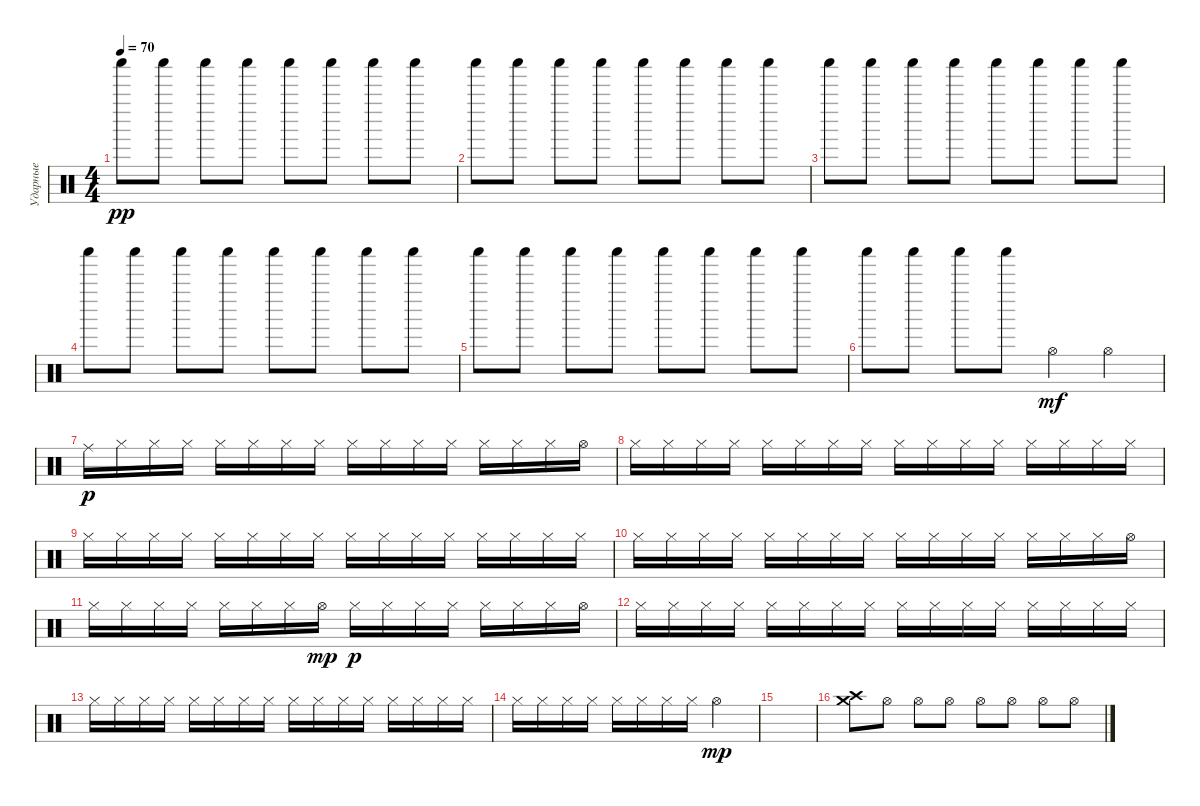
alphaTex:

\track ("Ударные" "Ударные") {instrument percussion}
\staff {score}
\articulation defaults
\ts (4 4)
\tempo 70
\clef neutral
\ks c "Shaker (hit)".8{dy pp} "Shaker (hit)".8 "Shaker (hit)".8 "Shaker (hit)".8 "Shaker (hit)".8 "Shaker (hit)".8 "Shaker (hit)".8 "Shaker (hit)".8
|
"Shaker (hit)".8 "Shaker (hit)".8 "Shaker (hit)".8 "Shaker (hit)".8 "Shaker (hit)".8 "Shaker (hit)".8 "Shaker (hit)".8 "Shaker (hit)".8 |
"Shaker (hit)".8 "Shaker (hit)".8 "Shaker (hit)".8 "Shaker (hit)".8 "Shaker (hit)".8 "Shaker (hit)".8 "Shaker (hit)".8 "Shaker (hit)".8 |
"Shaker (hit)".8 "Shaker (hit)".8 "Shaker (hit)".8 "Shaker (hit)".8 "Shaker (hit)".8 "Shaker (hit)".8 "Shaker (hit)".8 "Shaker (hit)".8 |
"Shaker (hit)".8 "Shaker (hit)".8 "Shaker (hit)".8 "Shaker (hit)".8 "Shaker (hit)".8 "Shaker (hit)".8 "Shaker (hit)".8 "Shaker (hit)".8 |
"Shaker (hit)".8 "Shaker (hit)".8 "Shaker (hit)".8 "Shaker (hit)".8 "Hi-Hat (open)".4{dy mf} "Hi-Hat (open)".4 |
"Ride (middle)".16{dy p} "Hi-Hat (closed)".16 "Hi-Hat (closed)".16 "Hi-Hat (closed)".16 "Hi-Hat (closed)".16 "Hi-Hat (closed)".16 "Hi-Hat (closed)".16 "Hi-Hat (closed)".16 "Hi-Hat (closed)".16 "Hi-Hat (closed)".16 "Hi-Hat (closed)".16 "Hi-Hat (closed)".16 "Hi-Hat (closed)".16 "Hi-Hat (closed)".16 "Hi-Hat (closed)".16 "Hi-Hat (open)".16 |
"Hi-Hat (closed)".16 "Hi-Hat (closed)".16 "Hi-Hat (closed)".16 "Hi-Hat (closed)".16 "Hi-Hat (closed)".16 "Hi-Hat (closed)".16 "Hi-Hat (closed)".16 "Hi-Hat (closed)".16 "Hi-Hat (closed)".16 "Hi-Hat (closed)".16 "Hi-Hat (closed)".16 "Hi-Hat (closed)".16 "Hi-Hat (closed)".16 "Hi-Hat (closed)".16 "Hi-Hat (closed)".16 "Hi-Hat (closed)".16 |
"Hi-Hat (closed)".16 "Hi-Hat (closed)".16 "Hi-Hat (closed)".16 "Hi-Hat (closed)".16 "Hi-Hat (closed)".16 "Hi-Hat (closed)".16 "Hi-Hat (closed)".16 "Hi-Hat (closed)".16 "Hi-Hat (closed)".16 "Hi-Hat (closed)".16 "Hi-Hat (closed)".16 "Hi-Hat (closed)".16 "Hi-Hat (closed)".16 "Hi-Hat (closed)".16 "Hi-Hat (closed)".16 "Hi-Hat (closed)".16 |
"Hi-Hat (closed)".16 "Hi-Hat (closed)".16 "Hi-Hat (closed)".16 "Hi-Hat (closed)".16 "Hi-Hat (closed)".16 "Hi-Hat (closed)".16 "Hi-Hat (closed)".16 "Hi-Hat (closed)".16 "Hi-Hat (closed)".16 "Hi-Hat (closed)".16 "Hi-Hat (closed)".16 "Hi-Hat (closed)".16 "Hi-Hat (closed)".16 "Hi-Hat (closed)".16 "Hi-Hat (closed)".16 "Hi-Hat (open)".16 |
"Hi-Hat (closed)".16 "Hi-Hat (closed)".16 "Hi-Hat (closed)".16 "Hi-Hat (closed)".16 "Hi-Hat (closed)".16 "Hi-Hat (closed)".16 "Hi-Hat (closed)".16 "Hi-Hat (open)".16{dy mp} "Hi-Hat (closed)".16{dy p} "Hi-Hat (closed)".16 "Hi-Hat (closed)".16 "Hi-Hat (closed)".16 "Hi-Hat (closed)".16 "Hi-Hat (closed)".16 "Hi-Hat (closed)".16 "Hi-Hat (open)".16 |
"Hi-Hat (closed)".16 "Hi-Hat (closed)".16 "Hi-Hat (closed)".16 "Hi-Hat (closed)".16 "Hi-Hat (closed)".16 "Hi-Hat (closed)".16 "Hi-Hat (closed)".16 "Hi-Hat (closed)".16 "Hi-Hat (closed)".16 "Hi-Hat (closed)".16 "Hi-Hat (closed)".16 "Hi-Hat (closed)".16 "Hi-Hat (closed)".16 "Hi-Hat (closed)".16 "Hi-Hat (closed)".16 "Hi-Hat (closed)".16 |
"Hi-Hat (closed)".16 "Hi-Hat (closed)".16 "Hi-Hat (closed)".16 "Hi-Hat (closed)".16 "Hi-Hat (closed)".16 "Hi-Hat (closed)".16 "Hi-Hat (closed)".16 "Hi-Hat (closed)".16 "Hi-Hat (closed)".16 "Hi-Hat (closed)".16 "Hi-Hat (closed)".16 "Hi-Hat (closed)".16 "Hi-Hat (closed)".16 "Hi-Hat (closed)".16 "Hi-Hat (closed)".16 "Hi-Hat (closed)".16 |
"Hi-Hat (closed)".16 "Hi-Hat (closed)".16 "Hi-Hat (closed)".16 "Hi-Hat (closed)".16 "Hi-Hat (closed)".16 "Hi-Hat (closed)".16 "Hi-Hat (closed)".16 "Hi-Hat (closed)".16 "Hi-Hat (open)".2{dy mp} |
|
("Crash high (hit)" "Crash medium (hit)").8 "Hi-Hat (open)".8 "Hi-Hat (open)".8 "Hi-Hat (open)".8 "Hi-Hat (open)".8 "Hi-Hat (open)".8 "Hi-Hat (open)".8 "Hi-Hat (open)".8
